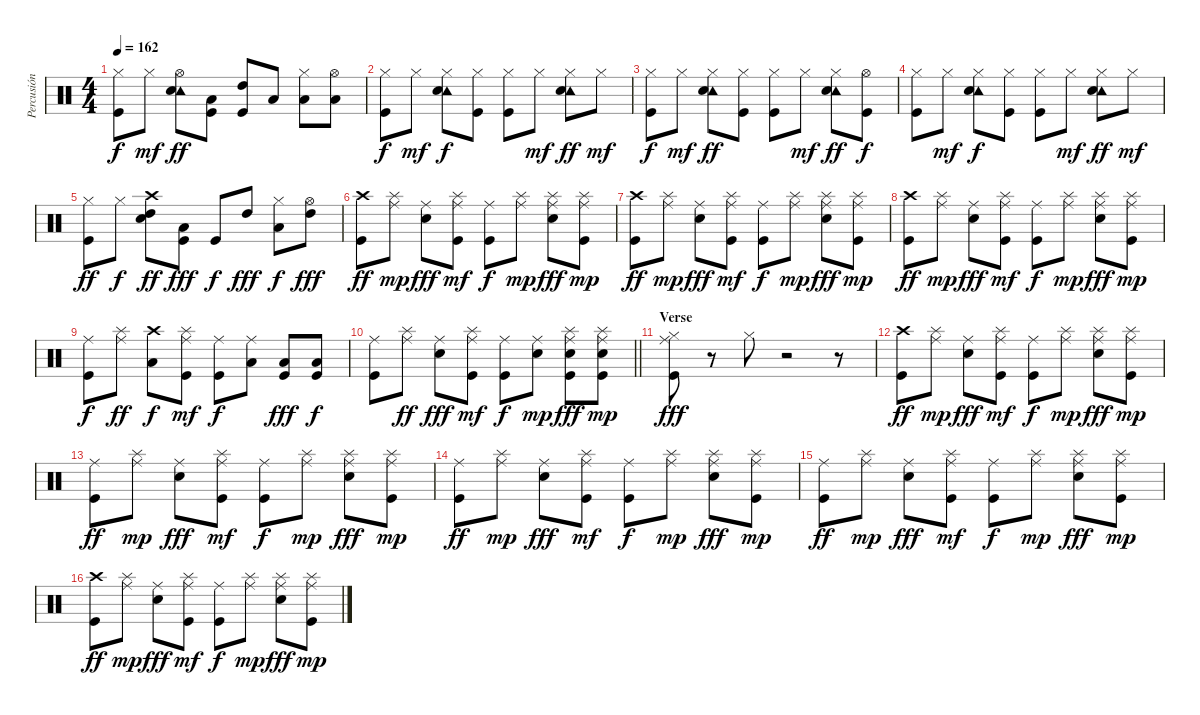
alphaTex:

\track ("Percusión" "Percusión") {instrument percussion}
\staff {score}
\articulation defaults
\ts (4 4)
\tempo 162
\clef neutral
\ks c
("Hi-Hat (closed)" "Kick (hit)").8{dy f} "Hi-Hat (closed)".8{dy mf} ("Hi-Hat (open)" "Tambourine (hit)" "Snare (hit) 2").8{dy ff} ("Low Tom (hit)" "Kick (hit)").8 ("High Tom (hit)" "Kick (hit)").8 "Low Tom (hit)".8 ("Hi-Hat (closed)" "Low Tom (hit)").8 ("Low Floor Tom (hit)" "Hi-Hat (open)").8 |
("Hi-Hat (closed)" "Kick (hit)").8{dy f} "Hi-Hat (closed)".8{dy mf} ("Hi-Hat (closed)" "Tambourine (hit)" "Snare (hit) 2").8{dy f} ("Hi-Hat (closed)" "Kick (hit)").8 ("Hi-Hat (closed)" "Kick (hit)").8 "Hi-Hat (closed)".8{dy mf} ("Hi-Hat (closed)" "Tambourine (hit)" "Snare (hit) 2").8{dy ff} "Hi-Hat (closed)".8{dy mf} |
("Hi-Hat (closed)" "Kick (hit)").8{dy f} "Hi-Hat (closed)".8{dy mf} ("Hi-Hat (closed)" "Tambourine (hit)" "Snare (hit) 2").8{dy ff} ("Hi-Hat (closed)" "Kick (hit)").8 ("Hi-Hat (closed)" "Kick (hit)").8 "Hi-Hat (closed)".8{dy mf} ("Hi-Hat (closed)" "Tambourine (hit)" "Snare (hit) 2").8{dy ff} ("Hi-Hat (open)" "Kick (hit)").8{dy f} |
("Hi-Hat (closed)" "Kick (hit)").8 "Hi-Hat (closed)".8{dy mf} ("Hi-Hat (closed)" "Tambourine (hit)" "Snare (hit) 2").8{dy f} ("Hi-Hat (closed)" "Kick (hit)").8 ("Hi-Hat (closed)" "Kick (hit)").8 "Hi-Hat (closed)".8{dy mf} ("Hi-Hat (closed)" "Tambourine (hit)" "Snare (hit) 2").8{dy ff} "Hi-Hat (closed)".8{dy mf} |
("Hi-Hat (closed)" "Kick (hit)").8{dy ff} "Hi-Hat (closed)".8{dy f} ("Crash high (hit)" "High Tom (hit)" "Snare (hit) 2").8{dy ff} ("Low Tom (hit)" "Kick (hit)").8{dy fff} "Kick (hit)".8{dy f} "High Tom (hit)".8{dy fff} ("Hi-Hat (closed)" "Low Tom (hit)").8{dy f} ("Hi-Hat (open)" "High Tom (hit)").8{dy fff} |
("Crash high (hit)" "Kick (hit)").8{dy ff} ("Ride (middle)" "Splash (hit)").8{dy mp} ("Ride (middle)" "Snare (hit) 2").8{dy fff} ("Ride (middle)" "Splash (hit)" "Kick (hit)").8{dy mf} ("Ride (middle)" "Kick (hit)").8{dy f} ("Ride (middle)" "Splash (hit)").8{dy mp} ("Ride (middle)" "Splash (hit)" "Snare (hit) 2").8{dy fff} ("Ride (middle)" "Splash (hit)" "Kick (hit)").8{dy mp} |
("Crash high (hit)" "Kick (hit)").8{dy ff} ("Ride (middle)" "Splash (hit)").8{dy mp} ("Ride (middle)" "Snare (hit) 2").8{dy fff} ("Ride (middle)" "Splash (hit)" "Kick (hit)").8{dy mf} ("Ride (middle)" "Kick (hit)").8{dy f} ("Ride (middle)" "Splash (hit)").8{dy mp} ("Ride (middle)" "Splash (hit)" "Snare (hit) 2").8{dy fff} ("Ride (middle)" "Splash (hit)" "Kick (hit)").8{dy mp} |
("Crash high (hit)" "Kick (hit)").8{dy ff} ("Ride (middle)" "Splash (hit)").8{dy mp} ("Ride (middle)" "Snare (hit) 2").8{dy fff} ("Ride (middle)" "Splash (hit)" "Kick (hit)").8{dy mf} ("Ride (middle)" "Kick (hit)").8{dy f} ("Ride (middle)" "Splash (hit)").8{dy mp} ("Ride (middle)" "Splash (hit)" "Snare (hit) 2").8{dy fff} ("Ride (middle)" "Splash (hit)" "Kick (hit)").8{dy mp} |
("Ride (middle)" "Kick (hit)").8{dy f} ("Ride (middle)" "Splash (hit)").8{dy ff} ("Crash high (hit)" "Low Tom (hit)").8{dy f} ("Ride (middle)" "Splash (hit)" "Kick (hit)").8{dy mf} ("Ride (middle)" "Kick (hit)").8{dy f} ("Ride (middle)" "Low Tom (hit)").8 ("Low Tom (hit)" "Kick (hit)").8{dy fff} ("Low Tom (hit)" "Kick (hit)").8{dy f} |
\barLineRight lightlight
("Ride (middle)" "Kick (hit)").8 ("Ride (middle)" "Splash (hit)").8{dy ff} ("Ride (middle)" "Snare (hit) 2").8{dy fff} ("Ride (middle)" "Splash (hit)" "Kick (hit)").8{dy mf} ("Ride (middle)" "Kick (hit)").8{dy f} ("Ride (middle)" "Snare (hit) 2").8{dy mp} ("Ride (middle)" "Snare (hit) 2" "Splash (hit)" "Kick (hit)").8{dy fff} ("Ride (middle)" "Snare (hit) 2" "Splash (hit)" "Kick (hit)").8{dy mp} |
\section ("" "Verse")
("Kick (hit)" "Hi-Hat (closed)" "Ride (middle)").8{dy fff} r.8 "Hi-Hat (closed)".8 r.2 r.8 |
("Crash high (hit)" "Kick (hit)").8{dy ff} ("Ride (middle)" "Splash (hit)").8{dy mp} ("Ride (middle)" "Snare (hit) 2").8{dy fff} ("Ride (middle)" "Splash (hit)" "Kick (hit)").8{dy mf} ("Ride (middle)" "Kick (hit)").8{dy f} ("Ride (middle)" "Splash (hit)").8{dy mp} ("Ride (middle)" "Splash (hit)" "Snare (hit) 2").8{dy fff} ("Ride (middle)" "Splash (hit)" "Kick (hit)").8{dy mp} |
("Ride (middle)" "Kick (hit)").8{dy ff} ("Ride (middle)" "Splash (hit)").8{dy mp} ("Ride (middle)" "Snare (hit) 2").8{dy fff} ("Ride (middle)" "Splash (hit)" "Kick (hit)").8{dy mf} ("Ride (middle)" "Kick (hit)").8{dy f} ("Ride (middle)" "Splash (hit)").8{dy mp} ("Ride (middle)" "Splash (hit)" "Snare (hit) 2").8{dy fff} ("Ride (middle)" "Splash (hit)" "Kick (hit)").8{dy mp} |
("Ride (middle)" "Kick (hit)").8{dy ff} ("Ride (middle)" "Splash (hit)").8{dy mp} ("Ride (middle)" "Snare (hit) 2").8{dy fff} ("Ride (middle)" "Splash (hit)" "Kick (hit)").8{dy mf} ("Ride (middle)" "Kick (hit)").8{dy f} ("Ride (middle)" "Splash (hit)").8{dy mp} ("Ride (middle)" "Splash (hit)" "Snare (hit) 2").8{dy fff} ("Ride (middle)" "Splash (hit)" "Kick (hit)").8{dy mp} |
("Ride (middle)" "Kick (hit)").8{dy ff} ("Ride (middle)" "Splash (hit)").8{dy mp} ("Ride (middle)" "Snare (hit) 2").8{dy fff} ("Ride (middle)" "Splash (hit)" "Kick (hit)").8{dy mf} ("Ride (middle)" "Kick (hit)").8{dy f} ("Ride (middle)" "Splash (hit)").8{dy mp} ("Ride (middle)" "Splash (hit)" "Snare (hit) 2").8{dy fff} ("Ride (middle)" "Splash (hit)" "Kick (hit)").8{dy mp} |
("Crash high (hit)" "Kick (hit)").8{dy ff} ("Ride (middle)" "Splash (hit)").8{dy mp} ("Ride (middle)" "Snare (hit) 2").8{dy fff} ("Ride (middle)" "Splash (hit)" "Kick (hit)").8{dy mf} ("Ride (middle)" "Kick (hit)").8{dy f} ("Ride (middle)" "Splash (hit)").8{dy mp} ("Ride (middle)" "Splash (hit)" "Snare (hit) 2").8{dy fff} ("Ride (middle)" "Splash (hit)" "Kick (hit)").8{dy mp}
